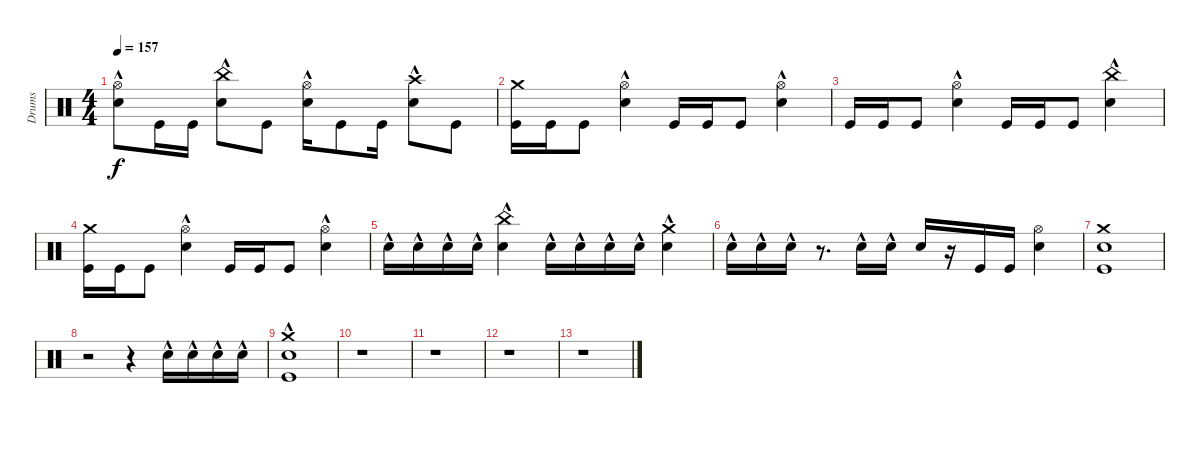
\track ("Drums" "Drums") {solo instrument percussion}
\staff {score}
\articulation defaults
\ts (4 4)
\tempo 157
\clef neutral
\ks c
("Snare (hit) 2"{hac} "Hi-Hat (open)").8{dy f} "Kick (hit)".16 "Kick (hit)".16 ("Snare (hit) 2"{hac} "China (hit)"{hac}).8 "Kick (hit)".8 ("Snare (hit) 2"{hac} "Hi-Hat (open)").16 "Kick (hit)".8 "Kick (hit)".16 ("Snare (hit) 2"{hac} "Crash high (hit)"{hac}).8 "Kick (hit)".8 |
("Kick (hit)" "Crash medium (hit)").16 "Kick (hit)".16 "Kick (hit)".8 ("Snare (hit) 2"{hac} "Hi-Hat (open)").4 "Kick (hit)".16 "Kick (hit)".16 "Kick (hit)".8 ("Snare (hit) 2"{hac} "Hi-Hat (open)").4 |
"Kick (hit)".16 "Kick (hit)".16 "Kick (hit)".8 ("Snare (hit) 2"{hac} "Hi-Hat (open)").4 "Kick (hit)".16 "Kick (hit)".16 "Kick (hit)".8 ("Snare (hit) 2"{hac} "China (hit)"{hac}).4 |
("Kick (hit)" "Crash medium (hit)").16 "Kick (hit)".16 "Kick (hit)".8 ("Snare (hit) 2"{hac} "Hi-Hat (open)").4 "Kick (hit)".16 "Kick (hit)".16 "Kick (hit)".8 ("Snare (hit) 2"{hac} "Hi-Hat (open)").4 |
"Snare (hit) 2"{hac}.16 "Snare (hit) 2"{hac}.16 "Snare (hit) 2"{hac}.16 "Snare (hit) 2"{hac}.16 ("Snare (hit) 2"{hac} "China (hit)"{hac}).4 "Snare (hit) 2"{hac}.16 "Snare (hit) 2"{hac}.16 "Snare (hit) 2"{hac}.16 "Snare (hit) 2"{hac}.16 ("Snare (hit) 2"{hac} "Crash medium (hit)").4 |
"Snare (hit) 2"{hac}.16 "Snare (hit) 2"{hac}.16 "Snare (hit) 2"{hac}.16 r.8{d} "Snare (hit) 2"{hac}.16 "Snare (hit) 2"{hac}.16 "Snare (hit) 2".16 r.16 "Kick (hit)".16 "Kick (hit)".16 ("Snare (hit) 2" "Hi-Hat (open)").4 |
("Snare (hit) 2" "Crash medium (hit)" "Kick (hit)").1 |
r.2 r.4 "Snare (hit) 2"{hac}.16 "Snare (hit) 2"{hac}.16 "Snare (hit) 2"{hac}.16 "Snare (hit) 2"{hac}.16 |
("Snare (hit) 2"{hac} "Kick (hit)"{hac} "Crash medium (hit)").1 |
r.1 |
r.1 |
r.1 |
r.1
